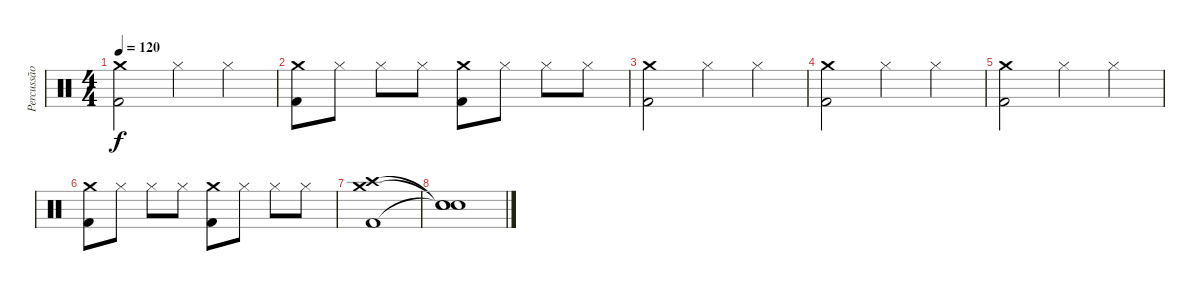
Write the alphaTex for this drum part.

\track ("Percussão" "Percussão") {instrument percussion}
\staff {score}
\articulation defaults
\ts (4 4)
\tempo 120
\clef neutral
\ks c
("Crash medium (hit)" "Kick (hit) 2").2{dy f} "Hi-Hat (closed)".4 "Hi-Hat (closed)".4 |
("Crash medium (hit)" "Kick (hit) 2").8 "Hi-Hat (closed)".8 "Hi-Hat (closed)".8 "Hi-Hat (closed)".8 ("Crash medium (hit)" "Kick (hit) 2").8 "Hi-Hat (closed)".8 "Hi-Hat (closed)".8 "Hi-Hat (closed)".8 |
("Crash medium (hit)" "Kick (hit) 2").2 "Hi-Hat (closed)".4 "Hi-Hat (closed)".4 |
("Crash medium (hit)" "Kick (hit) 2").2 "Hi-Hat (closed)".4 "Hi-Hat (closed)".4 |
("Crash medium (hit)" "Kick (hit) 2").2 "Hi-Hat (closed)".4 "Hi-Hat (closed)".4 |
("Crash medium (hit)" "Kick (hit) 2").8 "Hi-Hat (closed)".8 "Hi-Hat (closed)".8 "Hi-Hat (closed)".8 ("Crash medium (hit)" "Kick (hit) 2").8 "Hi-Hat (closed)".8 "Hi-Hat (closed)".8 "Hi-Hat (closed)".8 |
("Crash medium (hit)" "Crash high (hit)" "Kick (hit) 2").1 |
("Snare (hit)"{t} "Snare (hit)"{t} "Snare (hit)"{t}).1
